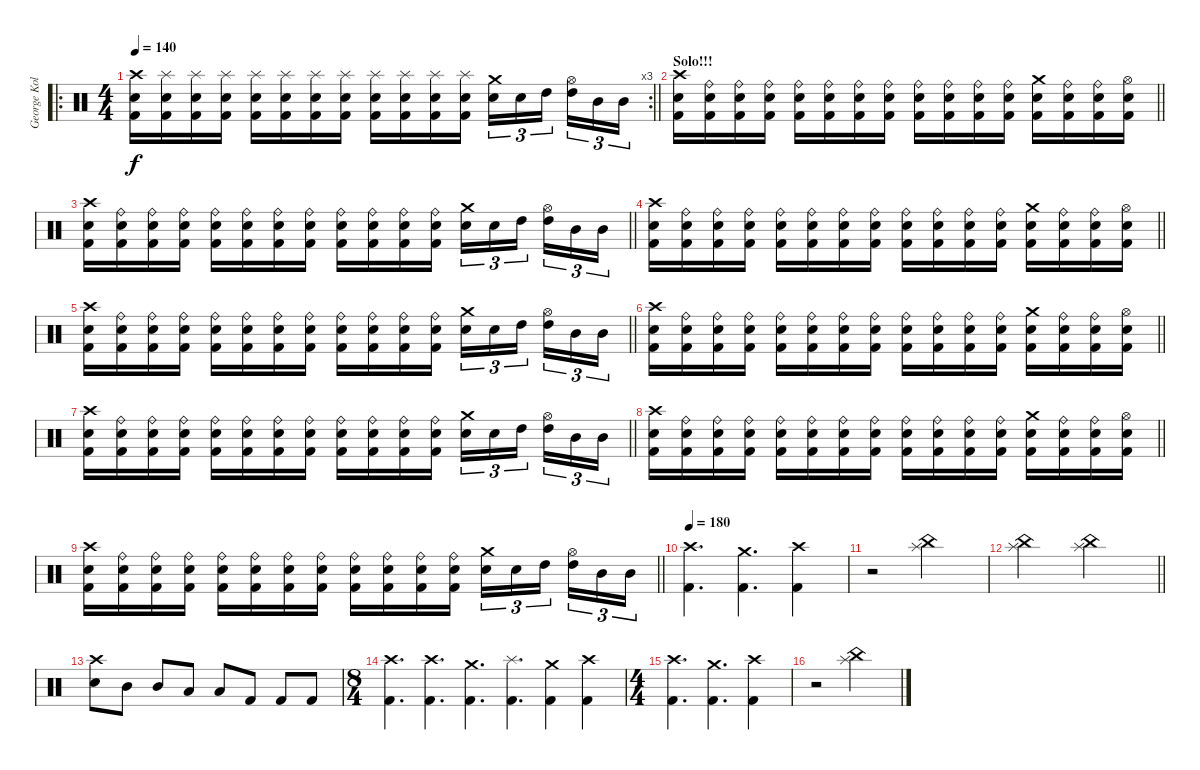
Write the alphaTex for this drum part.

\track ("George Kollias" "George Kol") {instrument percussion}
\staff {score}
\articulation defaults
\ro
\rc 3
\ts (4 4)
\tempo 140
\clef neutral
\barLineRight lightlight
\ks c
("Crash high (hit)" "Electric Snare (hit)" "Kick (hit) 2").16{dy f} ("Splash (hit)" "Electric Snare (hit)" "Kick (hit) 2").16 ("Splash (hit)" "Electric Snare (hit)" "Kick (hit) 2").16 ("Splash (hit)" "Electric Snare (hit)" "Kick (hit) 2").16 ("Splash (hit)" "Electric Snare (hit)" "Kick (hit) 2").16 ("Splash (hit)" "Electric Snare (hit)" "Kick (hit) 2").16 ("Splash (hit)" "Electric Snare (hit)" "Kick (hit) 2").16 ("Splash (hit)" "Electric Snare (hit)" "Kick (hit) 2").16 ("Splash (hit)" "Electric Snare (hit)" "Kick (hit) 2").16 ("Splash (hit)" "Electric Snare (hit)" "Kick (hit) 2").16 ("Splash (hit)" "Electric Snare (hit)" "Kick (hit) 2").16 ("Splash (hit)" "Electric Snare (hit)" "Kick (hit) 2").16 ("Crash medium (hit)" "Electric Snare (hit)").16{tu (3 2)} "Electric Snare (hit)".16{tu (3 2)} "High Tom (hit)".16{tu (3 2) beam splitsecondary} ("Hi-Hat (open)" "High Tom (hit)").16{tu (3 2)} "Mid Tom (hit)".16{tu (3 2)} "Mid Tom (hit)".16{tu (3 2)} |
\section ("" "Solo!!!")
\barLineRight lightlight
("Crash high (hit)" "Electric Snare (hit)" "Kick (hit) 2").16 ("Ride (bell)" "Electric Snare (hit)" "Kick (hit) 2").16 ("Ride (bell)" "Electric Snare (hit)" "Kick (hit) 2").16 ("Ride (bell)" "Electric Snare (hit)" "Kick (hit) 2").16 ("Ride (bell)" "Electric Snare (hit)" "Kick (hit) 2").16 ("Ride (bell)" "Electric Snare (hit)" "Kick (hit) 2").16 ("Ride (bell)" "Electric Snare (hit)" "Kick (hit) 2").16 ("Ride (bell)" "Electric Snare (hit)" "Kick (hit) 2").16 ("Ride (bell)" "Electric Snare (hit)" "Kick (hit) 2").16 ("Ride (bell)" "Electric Snare (hit)" "Kick (hit) 2").16 ("Ride (bell)" "Electric Snare (hit)" "Kick (hit) 2").16 ("Ride (bell)" "Electric Snare (hit)" "Kick (hit) 2").16 ("Crash medium (hit)" "Electric Snare (hit)" "Kick (hit) 2").16 ("Ride (bell)" "Electric Snare (hit)" "Kick (hit) 2").16 ("Ride (bell)" "Electric Snare (hit)" "Kick (hit) 2").16 ("Hi-Hat (open)" "Electric Snare (hit)" "Kick (hit) 2").16 |
\barLineRight lightlight
("Crash high (hit)" "Electric Snare (hit)" "Kick (hit) 2").16 ("Ride (bell)" "Electric Snare (hit)" "Kick (hit) 2").16 ("Ride (bell)" "Electric Snare (hit)" "Kick (hit) 2").16 ("Ride (bell)" "Electric Snare (hit)" "Kick (hit) 2").16 ("Ride (bell)" "Electric Snare (hit)" "Kick (hit) 2").16 ("Ride (bell)" "Electric Snare (hit)" "Kick (hit) 2").16 ("Ride (bell)" "Electric Snare (hit)" "Kick (hit) 2").16 ("Ride (bell)" "Electric Snare (hit)" "Kick (hit) 2").16 ("Ride (bell)" "Electric Snare (hit)" "Kick (hit) 2").16 ("Ride (bell)" "Electric Snare (hit)" "Kick (hit) 2").16 ("Ride (bell)" "Electric Snare (hit)" "Kick (hit) 2").16 ("Ride (bell)" "Electric Snare (hit)" "Kick (hit) 2").16 ("Crash medium (hit)" "Electric Snare (hit)").16{tu (3 2)} "Electric Snare (hit)".16{tu (3 2)} "High Tom (hit)".16{tu (3 2) beam splitsecondary} ("Hi-Hat (open)" "High Tom (hit)").16{tu (3 2)} "Mid Tom (hit)".16{tu (3 2)} "Mid Tom (hit)".16{tu (3 2)} |
\barLineRight lightlight
("Crash high (hit)" "Electric Snare (hit)" "Kick (hit) 2").16 ("Ride (bell)" "Electric Snare (hit)" "Kick (hit) 2").16 ("Ride (bell)" "Electric Snare (hit)" "Kick (hit) 2").16 ("Ride (bell)" "Electric Snare (hit)" "Kick (hit) 2").16 ("Ride (bell)" "Electric Snare (hit)" "Kick (hit) 2").16 ("Ride (bell)" "Electric Snare (hit)" "Kick (hit) 2").16 ("Ride (bell)" "Electric Snare (hit)" "Kick (hit) 2").16 ("Ride (bell)" "Electric Snare (hit)" "Kick (hit) 2").16 ("Ride (bell)" "Electric Snare (hit)" "Kick (hit) 2").16 ("Ride (bell)" "Electric Snare (hit)" "Kick (hit) 2").16 ("Ride (bell)" "Electric Snare (hit)" "Kick (hit) 2").16 ("Ride (bell)" "Electric Snare (hit)" "Kick (hit) 2").16 ("Crash medium (hit)" "Electric Snare (hit)" "Kick (hit) 2").16 ("Ride (bell)" "Electric Snare (hit)" "Kick (hit) 2").16 ("Ride (bell)" "Electric Snare (hit)" "Kick (hit) 2").16 ("Hi-Hat (open)" "Electric Snare (hit)" "Kick (hit) 2").16 |
\barLineRight lightlight
("Crash high (hit)" "Electric Snare (hit)" "Kick (hit) 2").16 ("Ride (bell)" "Electric Snare (hit)" "Kick (hit) 2").16 ("Ride (bell)" "Electric Snare (hit)" "Kick (hit) 2").16 ("Ride (bell)" "Electric Snare (hit)" "Kick (hit) 2").16 ("Ride (bell)" "Electric Snare (hit)" "Kick (hit) 2").16 ("Ride (bell)" "Electric Snare (hit)" "Kick (hit) 2").16 ("Ride (bell)" "Electric Snare (hit)" "Kick (hit) 2").16 ("Ride (bell)" "Electric Snare (hit)" "Kick (hit) 2").16 ("Ride (bell)" "Electric Snare (hit)" "Kick (hit) 2").16 ("Ride (bell)" "Electric Snare (hit)" "Kick (hit) 2").16 ("Ride (bell)" "Electric Snare (hit)" "Kick (hit) 2").16 ("Ride (bell)" "Electric Snare (hit)" "Kick (hit) 2").16 ("Crash medium (hit)" "Electric Snare (hit)").16{tu (3 2)} "Electric Snare (hit)".16{tu (3 2)} "High Tom (hit)".16{tu (3 2) beam splitsecondary} ("Hi-Hat (open)" "High Tom (hit)").16{tu (3 2)} "Mid Tom (hit)".16{tu (3 2)} "Mid Tom (hit)".16{tu (3 2)} |
\barLineRight lightlight
("Crash high (hit)" "Electric Snare (hit)" "Kick (hit) 2").16 ("Ride (bell)" "Electric Snare (hit)" "Kick (hit) 2").16 ("Ride (bell)" "Electric Snare (hit)" "Kick (hit) 2").16 ("Ride (bell)" "Electric Snare (hit)" "Kick (hit) 2").16 ("Ride (bell)" "Electric Snare (hit)" "Kick (hit) 2").16 ("Ride (bell)" "Electric Snare (hit)" "Kick (hit) 2").16 ("Ride (bell)" "Electric Snare (hit)" "Kick (hit) 2").16 ("Ride (bell)" "Electric Snare (hit)" "Kick (hit) 2").16 ("Ride (bell)" "Electric Snare (hit)" "Kick (hit) 2").16 ("Ride (bell)" "Electric Snare (hit)" "Kick (hit) 2").16 ("Ride (bell)" "Electric Snare (hit)" "Kick (hit) 2").16 ("Ride (bell)" "Electric Snare (hit)" "Kick (hit) 2").16 ("Crash medium (hit)" "Electric Snare (hit)" "Kick (hit) 2").16 ("Ride (bell)" "Electric Snare (hit)" "Kick (hit) 2").16 ("Ride (bell)" "Electric Snare (hit)" "Kick (hit) 2").16 ("Hi-Hat (open)" "Electric Snare (hit)" "Kick (hit) 2").16 |
\barLineRight lightlight
("Crash high (hit)" "Electric Snare (hit)" "Kick (hit) 2").16 ("Ride (bell)" "Electric Snare (hit)" "Kick (hit) 2").16 ("Ride (bell)" "Electric Snare (hit)" "Kick (hit) 2").16 ("Ride (bell)" "Electric Snare (hit)" "Kick (hit) 2").16 ("Ride (bell)" "Electric Snare (hit)" "Kick (hit) 2").16 ("Ride (bell)" "Electric Snare (hit)" "Kick (hit) 2").16 ("Ride (bell)" "Electric Snare (hit)" "Kick (hit) 2").16 ("Ride (bell)" "Electric Snare (hit)" "Kick (hit) 2").16 ("Ride (bell)" "Electric Snare (hit)" "Kick (hit) 2").16 ("Ride (bell)" "Electric Snare (hit)" "Kick (hit) 2").16 ("Ride (bell)" "Electric Snare (hit)" "Kick (hit) 2").16 ("Ride (bell)" "Electric Snare (hit)" "Kick (hit) 2").16 ("Crash medium (hit)" "Electric Snare (hit)").16{tu (3 2)} "Electric Snare (hit)".16{tu (3 2)} "High Tom (hit)".16{tu (3 2) beam splitsecondary} ("Hi-Hat (open)" "High Tom (hit)").16{tu (3 2)} "Mid Tom (hit)".16{tu (3 2)} "Mid Tom (hit)".16{tu (3 2)} |
\barLineRight lightlight
("Crash high (hit)" "Electric Snare (hit)" "Kick (hit) 2").16 ("Ride (bell)" "Electric Snare (hit)" "Kick (hit) 2").16 ("Ride (bell)" "Electric Snare (hit)" "Kick (hit) 2").16 ("Ride (bell)" "Electric Snare (hit)" "Kick (hit) 2").16 ("Ride (bell)" "Electric Snare (hit)" "Kick (hit) 2").16 ("Ride (bell)" "Electric Snare (hit)" "Kick (hit) 2").16 ("Ride (bell)" "Electric Snare (hit)" "Kick (hit) 2").16 ("Ride (bell)" "Electric Snare (hit)" "Kick (hit) 2").16 ("Ride (bell)" "Electric Snare (hit)" "Kick (hit) 2").16 ("Ride (bell)" "Electric Snare (hit)" "Kick (hit) 2").16 ("Ride (bell)" "Electric Snare (hit)" "Kick (hit) 2").16 ("Ride (bell)" "Electric Snare (hit)" "Kick (hit) 2").16 ("Crash medium (hit)" "Electric Snare (hit)" "Kick (hit) 2").16 ("Ride (bell)" "Electric Snare (hit)" "Kick (hit) 2").16 ("Ride (bell)" "Electric Snare (hit)" "Kick (hit) 2").16 ("Hi-Hat (open)" "Electric Snare (hit)" "Kick (hit) 2").16 |
\barLineRight lightlight
("Crash high (hit)" "Electric Snare (hit)" "Kick (hit) 2").16 ("Ride (bell)" "Electric Snare (hit)" "Kick (hit) 2").16 ("Ride (bell)" "Electric Snare (hit)" "Kick (hit) 2").16 ("Ride (bell)" "Electric Snare (hit)" "Kick (hit) 2").16 ("Ride (bell)" "Electric Snare (hit)" "Kick (hit) 2").16 ("Ride (bell)" "Electric Snare (hit)" "Kick (hit) 2").16 ("Ride (bell)" "Electric Snare (hit)" "Kick (hit) 2").16 ("Ride (bell)" "Electric Snare (hit)" "Kick (hit) 2").16 ("Ride (bell)" "Electric Snare (hit)" "Kick (hit) 2").16 ("Ride (bell)" "Electric Snare (hit)" "Kick (hit) 2").16 ("Ride (bell)" "Electric Snare (hit)" "Kick (hit) 2").16 ("Ride (bell)" "Electric Snare (hit)" "Kick (hit) 2").16 ("Crash medium (hit)" "Electric Snare (hit)").16{tu (3 2)} "Electric Snare (hit)".16{tu (3 2)} "High Tom (hit)".16{tu (3 2) beam splitsecondary} ("Hi-Hat (open)" "High Tom (hit)").16{tu (3 2)} "Mid Tom (hit)".16{tu (3 2)} "Mid Tom (hit)".16{tu (3 2)} |
\tempo 180
("Crash high (hit)" "Kick (hit) 2").4{d} ("Crash medium (hit)" "Kick (hit) 2").4{d} ("Crash high (hit)" "Kick (hit) 2").4 |
r.2 ("China (hit)" "Splash (hit)").2 |
\barLineRight lightlight
("China (hit)" "Splash (hit)").2 ("China (hit)" "Splash (hit)").2 |
("Crash high (hit)" "Electric Snare (hit)").8 "Mid Tom (hit)".8 "Mid Tom (hit)".8 "Low Tom (hit)".8 "Low Tom (hit)".8 "Kick (hit) 2".8 "Kick (hit) 2".8 "Kick (hit) 2".8 |
\ts (8 4)
("Crash high (hit)" "Kick (hit) 2").4{d} ("Crash high (hit)" "Kick (hit) 2").4{d} ("Crash medium (hit)" "Kick (hit) 2").4{d} ("Splash (hit)" "Kick (hit) 2").4{d} ("Crash medium (hit)" "Kick (hit) 2").4 ("Crash high (hit)" "Kick (hit) 2").4 |
\ts (4 4)
("Crash high (hit)" "Kick (hit) 2").4{d} ("Crash medium (hit)" "Kick (hit) 2").4{d} ("Crash high (hit)" "Kick (hit) 2").4 |
r.2 ("China (hit)" "Splash (hit)").2
